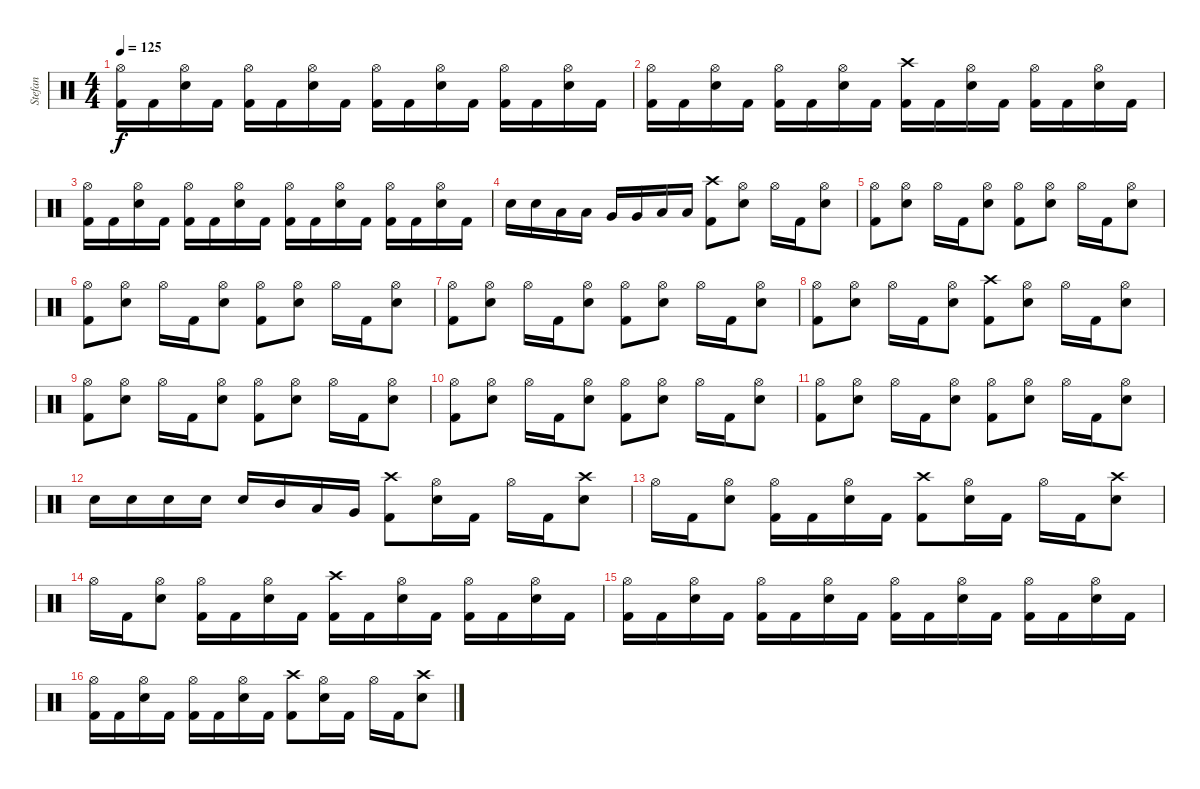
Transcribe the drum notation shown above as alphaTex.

\track ("Stefan" "Stefan") {instrument percussion}
\staff {score}
\articulation defaults
\ts (4 4)
\tempo 125
\clef neutral
\ks c
("Hi-Hat (open)" "Kick (hit) 2").16{dy f} "Kick (hit) 2".16 ("Hi-Hat (open)" "Electric Snare (hit)").16 "Kick (hit) 2".16 ("Hi-Hat (open)" "Kick (hit) 2").16 "Kick (hit) 2".16 ("Hi-Hat (open)" "Electric Snare (hit)").16 "Kick (hit) 2".16 ("Hi-Hat (open)" "Kick (hit) 2").16 "Kick (hit) 2".16 ("Hi-Hat (open)" "Electric Snare (hit)").16 "Kick (hit) 2".16 ("Hi-Hat (open)" "Kick (hit) 2").16 "Kick (hit) 2".16 ("Hi-Hat (open)" "Electric Snare (hit)").16 "Kick (hit) 2".16 |
("Hi-Hat (open)" "Kick (hit) 2").16 "Kick (hit) 2".16 ("Hi-Hat (open)" "Electric Snare (hit)").16 "Kick (hit) 2".16 ("Hi-Hat (open)" "Kick (hit) 2").16 "Kick (hit) 2".16 ("Hi-Hat (open)" "Electric Snare (hit)").16 "Kick (hit) 2".16 ("Crash high (hit)" "Kick (hit) 2").16 "Kick (hit) 2".16 ("Hi-Hat (open)" "Electric Snare (hit)").16 "Kick (hit) 2".16 ("Hi-Hat (open)" "Kick (hit) 2").16 "Kick (hit) 2".16 ("Hi-Hat (open)" "Electric Snare (hit)").16 "Kick (hit) 2".16 |
("Hi-Hat (open)" "Kick (hit) 2").16 "Kick (hit) 2".16 ("Hi-Hat (open)" "Electric Snare (hit)").16 "Kick (hit) 2".16 ("Hi-Hat (open)" "Kick (hit) 2").16 "Kick (hit) 2".16 ("Hi-Hat (open)" "Electric Snare (hit)").16 "Kick (hit) 2".16 ("Hi-Hat (open)" "Kick (hit) 2").16 "Kick (hit) 2".16 ("Hi-Hat (open)" "Electric Snare (hit)").16 "Kick (hit) 2".16 ("Hi-Hat (open)" "Kick (hit) 2").16 "Kick (hit) 2".16 ("Hi-Hat (open)" "Electric Snare (hit)").16 "Kick (hit) 2".16 |
"Electric Snare (hit)".16 "Electric Snare (hit)".16 "Low Tom (hit)".16 "Low Tom (hit)".16 "Very Low Tom (hit)".16 "Very Low Tom (hit)".16 "Low Floor Tom (hit)".16 "Low Floor Tom (hit)".16 ("Crash high (hit)" "Kick (hit) 2").8 ("Hi-Hat (open)" "Electric Snare (hit)").8 "Hi-Hat (open)".16 "Kick (hit) 2".16 ("Hi-Hat (open)" "Electric Snare (hit)").8 |
("Hi-Hat (open)" "Kick (hit) 2").8 ("Hi-Hat (open)" "Electric Snare (hit)").8 "Hi-Hat (open)".16 "Kick (hit) 2".16 ("Hi-Hat (open)" "Electric Snare (hit)").8 ("Hi-Hat (open)" "Kick (hit) 2").8 ("Hi-Hat (open)" "Electric Snare (hit)").8 "Hi-Hat (open)".16 "Kick (hit) 2".16 ("Hi-Hat (open)" "Electric Snare (hit)").8 |
("Hi-Hat (open)" "Kick (hit) 2").8 ("Hi-Hat (open)" "Electric Snare (hit)").8 "Hi-Hat (open)".16 "Kick (hit) 2".16 ("Hi-Hat (open)" "Electric Snare (hit)").8 ("Hi-Hat (open)" "Kick (hit) 2").8 ("Hi-Hat (open)" "Electric Snare (hit)").8 "Hi-Hat (open)".16 "Kick (hit) 2".16 ("Hi-Hat (open)" "Electric Snare (hit)").8 |
("Hi-Hat (open)" "Kick (hit) 2").8 ("Hi-Hat (open)" "Electric Snare (hit)").8 "Hi-Hat (open)".16 "Kick (hit) 2".16 ("Hi-Hat (open)" "Electric Snare (hit)").8 ("Hi-Hat (open)" "Kick (hit) 2").8 ("Hi-Hat (open)" "Electric Snare (hit)").8 "Hi-Hat (open)".16 "Kick (hit) 2".16 ("Hi-Hat (open)" "Electric Snare (hit)").8 |
("Hi-Hat (open)" "Kick (hit) 2").8 ("Hi-Hat (open)" "Electric Snare (hit)").8 "Hi-Hat (open)".16 "Kick (hit) 2".16 ("Hi-Hat (open)" "Electric Snare (hit)").8 ("Crash high (hit)" "Kick (hit) 2").8 ("Hi-Hat (open)" "Electric Snare (hit)").8 "Hi-Hat (open)".16 "Kick (hit) 2".16 ("Hi-Hat (open)" "Electric Snare (hit)").8 |
("Hi-Hat (open)" "Kick (hit) 2").8 ("Hi-Hat (open)" "Electric Snare (hit)").8 "Hi-Hat (open)".16 "Kick (hit) 2".16 ("Hi-Hat (open)" "Electric Snare (hit)").8 ("Hi-Hat (open)" "Kick (hit) 2").8 ("Hi-Hat (open)" "Electric Snare (hit)").8 "Hi-Hat (open)".16 "Kick (hit) 2".16 ("Hi-Hat (open)" "Electric Snare (hit)").8 |
("Hi-Hat (open)" "Kick (hit) 2").8 ("Hi-Hat (open)" "Electric Snare (hit)").8 "Hi-Hat (open)".16 "Kick (hit) 2".16 ("Hi-Hat (open)" "Electric Snare (hit)").8 ("Hi-Hat (open)" "Kick (hit) 2").8 ("Hi-Hat (open)" "Electric Snare (hit)").8 "Hi-Hat (open)".16 "Kick (hit) 2".16 ("Hi-Hat (open)" "Electric Snare (hit)").8 |
("Hi-Hat (open)" "Kick (hit) 2").8 ("Hi-Hat (open)" "Electric Snare (hit)").8 "Hi-Hat (open)".16 "Kick (hit) 2".16 ("Hi-Hat (open)" "Electric Snare (hit)").8 ("Hi-Hat (open)" "Kick (hit) 2").8 ("Hi-Hat (open)" "Electric Snare (hit)").8 "Hi-Hat (open)".16 "Kick (hit) 2".16 ("Hi-Hat (open)" "Electric Snare (hit)").8 |
"Electric Snare (hit)".16 "Electric Snare (hit)".16 "Electric Snare (hit)".16 "Electric Snare (hit)".16 "Electric Snare (hit)".16 "Mid Tom (hit)".16 "Low Tom (hit)".16 "Very Low Tom (hit)".16 ("Crash high (hit)" "Kick (hit) 2").8 ("Hi-Hat (open)" "Electric Snare (hit)").16 "Kick (hit) 2".16 "Hi-Hat (open)".16 "Kick (hit) 2".16 ("Crash high (hit)" "Electric Snare (hit)").8 |
"Hi-Hat (open)".16 "Kick (hit) 2".16 ("Hi-Hat (open)" "Electric Snare (hit)").8 ("Hi-Hat (open)" "Kick (hit) 2").16 "Kick (hit) 2".16 ("Hi-Hat (open)" "Electric Snare (hit)").16 "Kick (hit) 2".16 ("Crash high (hit)" "Kick (hit) 2").8 ("Electric Snare (hit)" "Hi-Hat (open)").16 "Kick (hit) 2".16 "Hi-Hat (open)".16 "Kick (hit) 2".16 ("Crash high (hit)" "Electric Snare (hit)").8 |
"Hi-Hat (open)".16 "Kick (hit) 2".16 ("Hi-Hat (open)" "Electric Snare (hit)").8 ("Hi-Hat (open)" "Kick (hit) 2").16 "Kick (hit) 2".16 ("Hi-Hat (open)" "Electric Snare (hit)").16 "Kick (hit) 2".16 ("Crash high (hit)" "Kick (hit) 2").16 "Kick (hit) 2".16 ("Hi-Hat (open)" "Electric Snare (hit)").16 "Kick (hit) 2".16 ("Hi-Hat (open)" "Kick (hit) 2").16 "Kick (hit) 2".16 ("Hi-Hat (open)" "Electric Snare (hit)").16 "Kick (hit) 2".16 |
("Hi-Hat (open)" "Kick (hit) 2").16 "Kick (hit) 2".16 ("Hi-Hat (open)" "Electric Snare (hit)").16 "Kick (hit) 2".16 ("Hi-Hat (open)" "Kick (hit) 2").16 "Kick (hit) 2".16 ("Hi-Hat (open)" "Electric Snare (hit)").16 "Kick (hit) 2".16 ("Hi-Hat (open)" "Kick (hit) 2").16 "Kick (hit) 2".16 ("Hi-Hat (open)" "Electric Snare (hit)").16 "Kick (hit) 2".16 ("Hi-Hat (open)" "Kick (hit) 2").16 "Kick (hit) 2".16 ("Hi-Hat (open)" "Electric Snare (hit)").16 "Kick (hit) 2".16 |
("Hi-Hat (open)" "Kick (hit) 2").16 "Kick (hit) 2".16 ("Hi-Hat (open)" "Electric Snare (hit)").16 "Kick (hit) 2".16 ("Hi-Hat (open)" "Kick (hit) 2").16 "Kick (hit) 2".16 ("Hi-Hat (open)" "Electric Snare (hit)").16 "Kick (hit) 2".16 ("Crash high (hit)" "Kick (hit) 2").8 ("Hi-Hat (open)" "Electric Snare (hit)").16 "Kick (hit) 2".16 "Hi-Hat (open)".16 "Kick (hit) 2".16 ("Crash high (hit)" "Electric Snare (hit)").8
